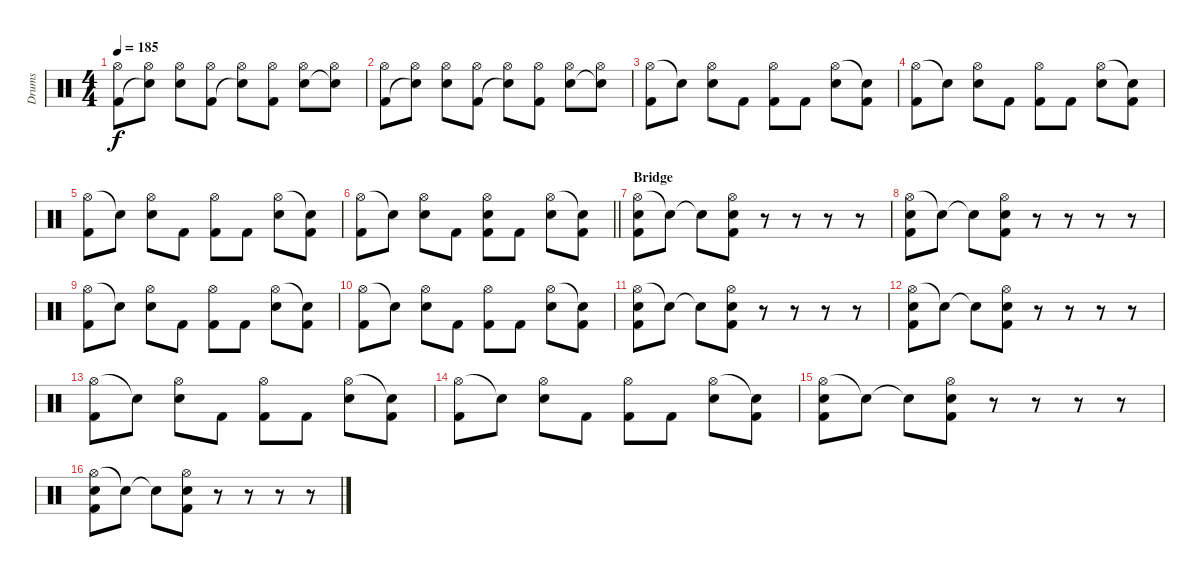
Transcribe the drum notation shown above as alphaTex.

\track ("Drums" "Drums") {instrument percussion}
\staff {score}
\articulation defaults
\ts (4 4)
\tempo 185
\clef neutral
\ks c
("Hi-Hat (open)" "Kick (hit) 2").8{dy f} ("Hi-Hat (open)" "Snare (hit)"{t}).8 ("Hi-Hat (open)" "Electric Snare (hit)").8 ("Hi-Hat (open)" "Kick (hit) 2").8 ("Hi-Hat (open)" "Snare (hit)"{t}).8 ("Hi-Hat (open)" "Kick (hit) 2").8 ("Hi-Hat (open)" "Electric Snare (hit)").8 ("Hi-Hat (open)" "Snare (hit)"{t}).8 |
("Hi-Hat (open)" "Kick (hit) 2").8 ("Hi-Hat (open)" "Snare (hit)"{t}).8 ("Hi-Hat (open)" "Electric Snare (hit)").8 ("Hi-Hat (open)" "Kick (hit) 2").8 ("Hi-Hat (open)" "Snare (hit)"{t}).8 ("Hi-Hat (open)" "Kick (hit) 2").8 ("Hi-Hat (open)" "Electric Snare (hit)").8 ("Hi-Hat (open)" "Snare (hit)"{t}).8 |
("Hi-Hat (open)" "Kick (hit) 2").8 "Snare (hit)"{t}.8 ("Hi-Hat (open)" "Electric Snare (hit)").8 "Kick (hit) 2".8 ("Hi-Hat (open)" "Kick (hit) 2").8 "Kick (hit) 2".8 ("Hi-Hat (open)" "Electric Snare (hit)").8 ("Snare (hit)"{t} "Kick (hit) 2").8 |
("Hi-Hat (open)" "Kick (hit) 2").8 "Snare (hit)"{t}.8 ("Hi-Hat (open)" "Electric Snare (hit)").8 "Kick (hit) 2".8 ("Hi-Hat (open)" "Kick (hit) 2").8 "Kick (hit) 2".8 ("Hi-Hat (open)" "Electric Snare (hit)").8 ("Snare (hit)"{t} "Kick (hit) 2").8 |
("Hi-Hat (open)" "Kick (hit) 2").8 "Snare (hit)"{t}.8 ("Hi-Hat (open)" "Electric Snare (hit)").8 "Kick (hit) 2".8 ("Hi-Hat (open)" "Kick (hit) 2").8 "Kick (hit) 2".8 ("Hi-Hat (open)" "Electric Snare (hit)").8 ("Snare (hit)"{t} "Kick (hit) 2").8 |
\barLineRight lightlight
("Hi-Hat (open)" "Kick (hit) 2").8 "Snare (hit)"{t}.8 ("Hi-Hat (open)" "Electric Snare (hit)").8 "Kick (hit) 2".8 ("Hi-Hat (open)" "Electric Snare (hit)" "Kick (hit) 2").8 "Kick (hit) 2".8 ("Hi-Hat (open)" "Electric Snare (hit)").8 ("Snare (hit)"{t} "Kick (hit) 2").8 |
\section ("" "Bridge")
("Hi-Hat (open)" "Electric Snare (hit)" "Kick (hit) 2").8 "Snare (hit)"{t}.8 "Snare (hit)"{t}.8 ("Hi-Hat (open)" "Electric Snare (hit)" "Kick (hit) 2").8 r.8 r.8 r.8 r.8 |
("Hi-Hat (open)" "Electric Snare (hit)" "Kick (hit) 2").8 "Snare (hit)"{t}.8 "Snare (hit)"{t}.8 ("Hi-Hat (open)" "Electric Snare (hit)" "Kick (hit) 2").8 r.8 r.8 r.8 r.8 |
("Hi-Hat (open)" "Kick (hit) 2").8 "Snare (hit)"{t}.8 ("Hi-Hat (open)" "Electric Snare (hit)").8 "Kick (hit) 2".8 ("Hi-Hat (open)" "Kick (hit) 2").8 "Kick (hit) 2".8 ("Hi-Hat (open)" "Electric Snare (hit)").8 ("Snare (hit)"{t} "Kick (hit) 2").8 |
("Hi-Hat (open)" "Kick (hit) 2").8 "Snare (hit)"{t}.8 ("Hi-Hat (open)" "Electric Snare (hit)").8 "Kick (hit) 2".8 ("Hi-Hat (open)" "Kick (hit) 2").8 "Kick (hit) 2".8 ("Hi-Hat (open)" "Electric Snare (hit)").8 ("Snare (hit)"{t} "Kick (hit) 2").8 |
("Hi-Hat (open)" "Electric Snare (hit)" "Kick (hit) 2").8 "Snare (hit)"{t}.8 "Snare (hit)"{t}.8 ("Hi-Hat (open)" "Electric Snare (hit)" "Kick (hit) 2").8 r.8 r.8 r.8 r.8 |
("Hi-Hat (open)" "Electric Snare (hit)" "Kick (hit) 2").8 "Snare (hit)"{t}.8 "Snare (hit)"{t}.8 ("Hi-Hat (open)" "Electric Snare (hit)" "Kick (hit) 2").8 r.8 r.8 r.8 r.8 |
("Hi-Hat (open)" "Kick (hit) 2").8 "Snare (hit)"{t}.8 ("Hi-Hat (open)" "Electric Snare (hit)").8 "Kick (hit) 2".8 ("Hi-Hat (open)" "Kick (hit) 2").8 "Kick (hit) 2".8 ("Hi-Hat (open)" "Electric Snare (hit)").8 ("Snare (hit)"{t} "Kick (hit) 2").8 |
("Hi-Hat (open)" "Kick (hit) 2").8 "Snare (hit)"{t}.8 ("Hi-Hat (open)" "Electric Snare (hit)").8 "Kick (hit) 2".8 ("Hi-Hat (open)" "Kick (hit) 2").8 "Kick (hit) 2".8 ("Hi-Hat (open)" "Electric Snare (hit)").8 ("Snare (hit)"{t} "Kick (hit) 2").8 |
("Hi-Hat (open)" "Electric Snare (hit)" "Kick (hit) 2").8 "Snare (hit)"{t}.8 "Snare (hit)"{t}.8 ("Hi-Hat (open)" "Electric Snare (hit)" "Kick (hit) 2").8 r.8 r.8 r.8 r.8 |
("Hi-Hat (open)" "Electric Snare (hit)" "Kick (hit) 2").8 "Snare (hit)"{t}.8 "Snare (hit)"{t}.8 ("Hi-Hat (open)" "Electric Snare (hit)" "Kick (hit) 2").8 r.8 r.8 r.8 r.8
